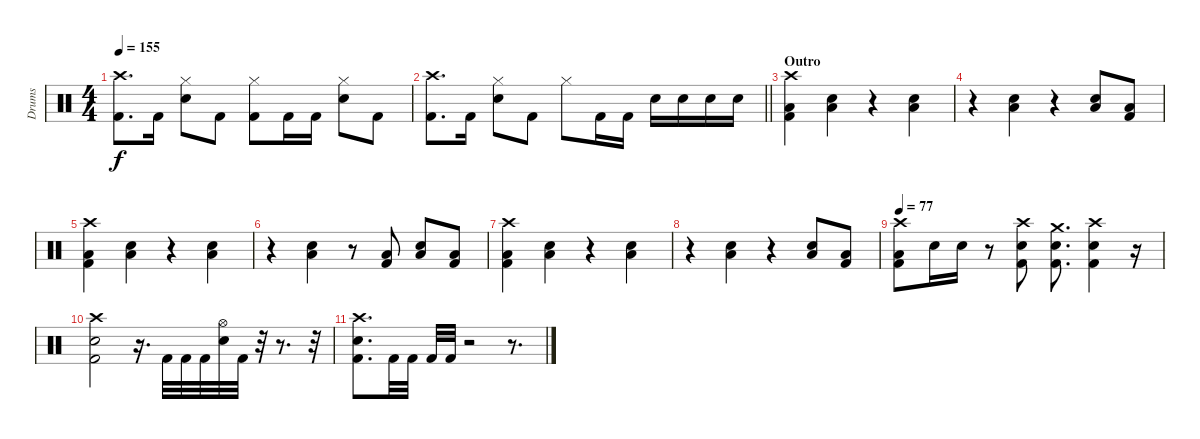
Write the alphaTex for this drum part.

\track ("Drums" "Drums") {instrument percussion}
\staff {score}
\articulation defaults
\ts (4 4)
\tempo 155
\clef neutral
\ks c
("Crash high (hit)" "Kick (hit) 2").8{d dy f} "Kick (hit) 2".16 ("Hi-Hat (closed)" "Snare (hit) 2").8 "Kick (hit) 2".8 ("Hi-Hat (closed)" "Kick (hit) 2").8 "Kick (hit) 2".16 "Kick (hit) 2".16 ("Hi-Hat (closed)" "Snare (hit) 2").8 "Kick (hit) 2".8 |
\barLineRight lightlight
("Crash high (hit)" "Kick (hit) 2").8{d} "Kick (hit) 2".16 ("Hi-Hat (closed)" "Snare (hit) 2").8 "Kick (hit) 2".8 "Hi-Hat (closed)".8 "Kick (hit) 2".16 "Kick (hit) 2".16 "Snare (hit) 2".16 "Snare (hit) 2".16 "Snare (hit) 2".16 "Snare (hit) 2".16 |
\section ("" "Outro")
("Crash high (hit)" "Low Tom (hit)" "Kick (hit) 2").4 ("Snare (hit) 2" "Low Tom (hit)").4 r.4 ("Snare (hit) 2" "Low Tom (hit)").4 |
r.4 ("Snare (hit) 2" "Low Tom (hit)").4 r.4 ("Snare (hit) 2" "Low Tom (hit)").8 ("Low Tom (hit)" "Kick (hit) 2").8 |
("Crash high (hit)" "Low Tom (hit)" "Kick (hit) 2").4 ("Snare (hit) 2" "Low Tom (hit)").4 r.4 ("Snare (hit) 2" "Low Tom (hit)").4 |
r.4 ("Snare (hit) 2" "Low Tom (hit)").4 r.8 ("Low Tom (hit)" "Kick (hit) 2").8 ("Snare (hit) 2" "Low Tom (hit)").8 ("Low Tom (hit)" "Kick (hit) 2").8 |
("Crash high (hit)" "Low Tom (hit)" "Kick (hit) 2").4 ("Snare (hit) 2" "Low Tom (hit)").4 r.4 ("Snare (hit) 2" "Low Tom (hit)").4 |
r.4 ("Snare (hit) 2" "Low Tom (hit)").4 r.4 ("Snare (hit) 2" "Low Tom (hit)").8 ("Low Tom (hit)" "Kick (hit) 2").8 |
\tempo 77
("Crash high (hit)" "Low Tom (hit)" "Kick (hit) 2").8 "Snare (hit) 2".16 "Snare (hit) 2".16 r.8 ("Crash high (hit)" "Snare (hit) 2" "Kick (hit) 2").8 ("Crash medium (hit)" "Snare (hit) 2" "Kick (hit) 2").8{d} ("Crash high (hit)" "Snare (hit) 2" "Kick (hit) 2").4 r.16 |
("Crash high (hit)" "Snare (hit) 2" "Kick (hit) 2").2 r.16{d} "Kick (hit) 2".32 "Kick (hit) 2".32 "Kick (hit) 2".32 ("Hi-Hat (open)" "Snare (hit) 2").32 "Kick (hit) 2".32 r.32 r.8{d} r.32 |
("Crash high (hit)" "Snare (hit) 2" "Kick (hit) 2").8{d} "Kick (hit) 2".32 "Kick (hit) 2".32 "Kick (hit) 2".32 "Kick (hit) 2".32 r.2 r.8{d}
